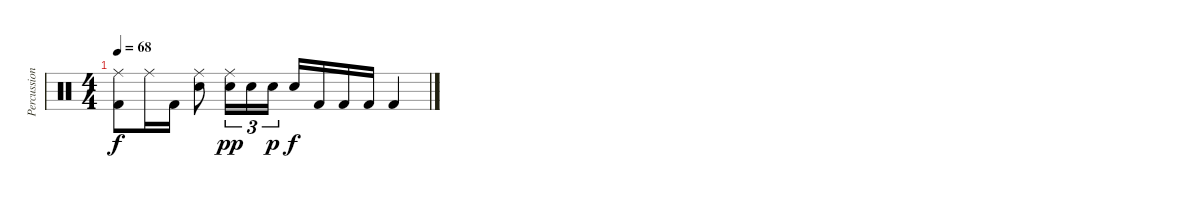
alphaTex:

\track ("Percussion" "Percussion") {instrument percussion}
\staff {score}
\articulation defaults
\ts (4 4)
\tempo 68
\clef neutral
\ks c
("Ride (middle)" "Kick (hit) 2").8{dy f} "Ride (middle)".16 "Kick (hit) 2".16 ("Ride (middle)" "Snare (hit) 2").8 ("Ride (middle)" "Snare (hit) 2").16{tu (3 2) dy pp} "Snare (hit) 2".16{tu (3 2)} "Snare (hit) 2".16{tu (3 2) dy p} "Snare (hit) 2".16{dy f} "Kick (hit) 2".16 "Kick (hit) 2".16 "Kick (hit) 2".16 "Kick (hit) 2".4
